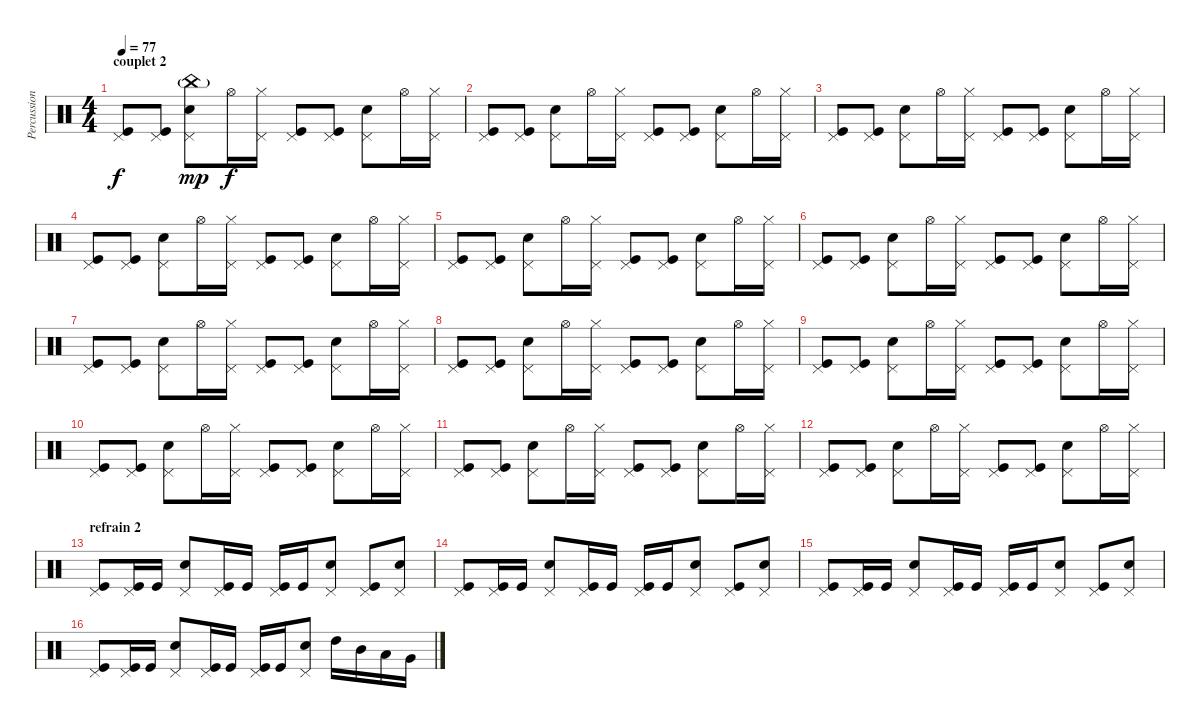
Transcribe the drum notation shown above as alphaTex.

\track ("Percussions" "Percussion") {instrument percussion}
\staff {score}
\articulation defaults
\ts (4 4)
\section ("" "couplet 2")
\tempo 77
\clef neutral
\ks c
("Pedal Hi-Hat (hit)" "Kick (hit)").8{dy f volume 6} ("Pedal Hi-Hat (hit)" "Kick (hit)").8 ("China (hit)"{g} "Pedal Hi-Hat (hit)" "Electric Snare (hit)").8{dy mp} "Hi-Hat (open)".16{dy f} ("Hi-Hat (closed)" "Pedal Hi-Hat (hit)").16 ("Pedal Hi-Hat (hit)" "Kick (hit)").8 ("Pedal Hi-Hat (hit)" "Kick (hit)").8 ("Pedal Hi-Hat (hit)" "Electric Snare (hit)").8 "Hi-Hat (open)".16 ("Hi-Hat (closed)" "Pedal Hi-Hat (hit)").16 |
("Pedal Hi-Hat (hit)" "Kick (hit)").8 ("Pedal Hi-Hat (hit)" "Kick (hit)").8 ("Pedal Hi-Hat (hit)" "Electric Snare (hit)").8 "Hi-Hat (open)".16 ("Hi-Hat (closed)" "Pedal Hi-Hat (hit)").16 ("Pedal Hi-Hat (hit)" "Kick (hit)").8 ("Pedal Hi-Hat (hit)" "Kick (hit)").8 ("Pedal Hi-Hat (hit)" "Electric Snare (hit)").8 "Hi-Hat (open)".16 ("Hi-Hat (closed)" "Pedal Hi-Hat (hit)").16 |
("Pedal Hi-Hat (hit)" "Kick (hit)").8 ("Pedal Hi-Hat (hit)" "Kick (hit)").8 ("Pedal Hi-Hat (hit)" "Electric Snare (hit)").8 "Hi-Hat (open)".16 ("Hi-Hat (closed)" "Pedal Hi-Hat (hit)").16 ("Pedal Hi-Hat (hit)" "Kick (hit)").8 ("Pedal Hi-Hat (hit)" "Kick (hit)").8 ("Pedal Hi-Hat (hit)" "Electric Snare (hit)").8 "Hi-Hat (open)".16 ("Hi-Hat (closed)" "Pedal Hi-Hat (hit)").16 |
("Pedal Hi-Hat (hit)" "Kick (hit)").8 ("Pedal Hi-Hat (hit)" "Kick (hit)").8 ("Pedal Hi-Hat (hit)" "Electric Snare (hit)").8 "Hi-Hat (open)".16 ("Hi-Hat (closed)" "Pedal Hi-Hat (hit)").16 ("Pedal Hi-Hat (hit)" "Kick (hit)").8 ("Pedal Hi-Hat (hit)" "Kick (hit)").8 ("Pedal Hi-Hat (hit)" "Electric Snare (hit)").8 "Hi-Hat (open)".16 ("Hi-Hat (closed)" "Pedal Hi-Hat (hit)").16 |
("Pedal Hi-Hat (hit)" "Kick (hit)").8 ("Pedal Hi-Hat (hit)" "Kick (hit)").8 ("Pedal Hi-Hat (hit)" "Electric Snare (hit)").8 "Hi-Hat (open)".16 ("Hi-Hat (closed)" "Pedal Hi-Hat (hit)").16 ("Pedal Hi-Hat (hit)" "Kick (hit)").8 ("Pedal Hi-Hat (hit)" "Kick (hit)").8 ("Pedal Hi-Hat (hit)" "Electric Snare (hit)").8 "Hi-Hat (open)".16 ("Hi-Hat (closed)" "Pedal Hi-Hat (hit)").16 |
("Pedal Hi-Hat (hit)" "Kick (hit)").8 ("Pedal Hi-Hat (hit)" "Kick (hit)").8 ("Pedal Hi-Hat (hit)" "Electric Snare (hit)").8 "Hi-Hat (open)".16 ("Hi-Hat (closed)" "Pedal Hi-Hat (hit)").16 ("Pedal Hi-Hat (hit)" "Kick (hit)").8 ("Pedal Hi-Hat (hit)" "Kick (hit)").8 ("Pedal Hi-Hat (hit)" "Electric Snare (hit)").8 "Hi-Hat (open)".16 ("Hi-Hat (closed)" "Pedal Hi-Hat (hit)").16 |
("Pedal Hi-Hat (hit)" "Kick (hit)").8 ("Pedal Hi-Hat (hit)" "Kick (hit)").8 ("Pedal Hi-Hat (hit)" "Electric Snare (hit)").8 "Hi-Hat (open)".16 ("Hi-Hat (closed)" "Pedal Hi-Hat (hit)").16 ("Pedal Hi-Hat (hit)" "Kick (hit)").8 ("Pedal Hi-Hat (hit)" "Kick (hit)").8 ("Pedal Hi-Hat (hit)" "Electric Snare (hit)").8 "Hi-Hat (open)".16 ("Hi-Hat (closed)" "Pedal Hi-Hat (hit)").16 |
("Pedal Hi-Hat (hit)" "Kick (hit)").8 ("Pedal Hi-Hat (hit)" "Kick (hit)").8 ("Pedal Hi-Hat (hit)" "Electric Snare (hit)").8 "Hi-Hat (open)".16 ("Hi-Hat (closed)" "Pedal Hi-Hat (hit)").16 ("Pedal Hi-Hat (hit)" "Kick (hit)").8 ("Pedal Hi-Hat (hit)" "Kick (hit)").8 ("Pedal Hi-Hat (hit)" "Electric Snare (hit)").8 "Hi-Hat (open)".16 ("Hi-Hat (closed)" "Pedal Hi-Hat (hit)").16 |
("Pedal Hi-Hat (hit)" "Kick (hit)").8 ("Pedal Hi-Hat (hit)" "Kick (hit)").8 ("Pedal Hi-Hat (hit)" "Electric Snare (hit)").8 "Hi-Hat (open)".16 ("Hi-Hat (closed)" "Pedal Hi-Hat (hit)").16 ("Pedal Hi-Hat (hit)" "Kick (hit)").8 ("Pedal Hi-Hat (hit)" "Kick (hit)").8 ("Pedal Hi-Hat (hit)" "Electric Snare (hit)").8 "Hi-Hat (open)".16 ("Hi-Hat (closed)" "Pedal Hi-Hat (hit)").16 |
("Pedal Hi-Hat (hit)" "Kick (hit)").8 ("Pedal Hi-Hat (hit)" "Kick (hit)").8 ("Pedal Hi-Hat (hit)" "Electric Snare (hit)").8 "Hi-Hat (open)".16 ("Hi-Hat (closed)" "Pedal Hi-Hat (hit)").16 ("Pedal Hi-Hat (hit)" "Kick (hit)").8 ("Pedal Hi-Hat (hit)" "Kick (hit)").8 ("Pedal Hi-Hat (hit)" "Electric Snare (hit)").8 "Hi-Hat (open)".16 ("Hi-Hat (closed)" "Pedal Hi-Hat (hit)").16 |
("Pedal Hi-Hat (hit)" "Kick (hit)").8 ("Pedal Hi-Hat (hit)" "Kick (hit)").8 ("Pedal Hi-Hat (hit)" "Electric Snare (hit)").8 "Hi-Hat (open)".16 ("Hi-Hat (closed)" "Pedal Hi-Hat (hit)").16 ("Pedal Hi-Hat (hit)" "Kick (hit)").8 ("Pedal Hi-Hat (hit)" "Kick (hit)").8 ("Pedal Hi-Hat (hit)" "Electric Snare (hit)").8 "Hi-Hat (open)".16 ("Hi-Hat (closed)" "Pedal Hi-Hat (hit)").16 |
("Pedal Hi-Hat (hit)" "Kick (hit)").8 ("Pedal Hi-Hat (hit)" "Kick (hit)").8 ("Pedal Hi-Hat (hit)" "Electric Snare (hit)").8 "Hi-Hat (open)".16 ("Hi-Hat (closed)" "Pedal Hi-Hat (hit)").16 ("Pedal Hi-Hat (hit)" "Kick (hit)").8 ("Pedal Hi-Hat (hit)" "Kick (hit)").8 ("Pedal Hi-Hat (hit)" "Electric Snare (hit)").8 "Hi-Hat (open)".16 ("Hi-Hat (closed)" "Pedal Hi-Hat (hit)").16 |
\section ("" "refrain 2")
("Pedal Hi-Hat (hit)" "Kick (hit)").8{volume 14} ("Pedal Hi-Hat (hit)" "Kick (hit)").16 "Kick (hit)".16 ("Pedal Hi-Hat (hit)" "Electric Snare (hit)").8 ("Pedal Hi-Hat (hit)" "Kick (hit)").16 "Kick (hit)".16 ("Pedal Hi-Hat (hit)" "Kick (hit)").16 "Kick (hit)".16 ("Pedal Hi-Hat (hit)" "Electric Snare (hit)").8 ("Pedal Hi-Hat (hit)" "Kick (hit)").8 ("Pedal Hi-Hat (hit)" "Electric Snare (hit)").8 |
("Pedal Hi-Hat (hit)" "Kick (hit)").8{volume 14} ("Pedal Hi-Hat (hit)" "Kick (hit)").16 "Kick (hit)".16 ("Pedal Hi-Hat (hit)" "Electric Snare (hit)").8 ("Pedal Hi-Hat (hit)" "Kick (hit)").16 "Kick (hit)".16 ("Pedal Hi-Hat (hit)" "Kick (hit)").16 "Kick (hit)".16 ("Pedal Hi-Hat (hit)" "Electric Snare (hit)").8 ("Pedal Hi-Hat (hit)" "Kick (hit)").8 ("Pedal Hi-Hat (hit)" "Electric Snare (hit)").8 |
("Pedal Hi-Hat (hit)" "Kick (hit)").8{volume 14} ("Pedal Hi-Hat (hit)" "Kick (hit)").16 "Kick (hit)".16 ("Pedal Hi-Hat (hit)" "Electric Snare (hit)").8 ("Pedal Hi-Hat (hit)" "Kick (hit)").16 "Kick (hit)".16 ("Pedal Hi-Hat (hit)" "Kick (hit)").16 "Kick (hit)".16 ("Pedal Hi-Hat (hit)" "Electric Snare (hit)").8 ("Pedal Hi-Hat (hit)" "Kick (hit)").8 ("Pedal Hi-Hat (hit)" "Electric Snare (hit)").8 |
("Pedal Hi-Hat (hit)" "Kick (hit)").8{volume 14} ("Pedal Hi-Hat (hit)" "Kick (hit)").16 "Kick (hit)".16 ("Pedal Hi-Hat (hit)" "Electric Snare (hit)").8 ("Pedal Hi-Hat (hit)" "Kick (hit)").16 "Kick (hit)".16 ("Pedal Hi-Hat (hit)" "Kick (hit)").16 "Kick (hit)".16 ("Pedal Hi-Hat (hit)" "Electric Snare (hit)").8 "High Tom (hit)".16 "Mid Tom (hit)".16 "Low Tom (hit)".16 "Very Low Tom (hit)".16
